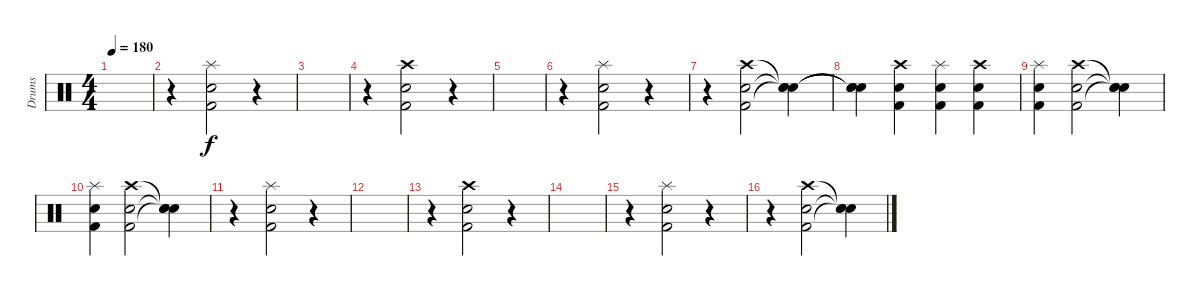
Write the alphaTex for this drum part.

\track ("Drums" "Drums") {instrument percussion}
\staff {score}
\articulation defaults
\ts (4 4)
\tempo 180
\clef neutral
\ks c
|
r.4 ("Snare (hit) 2" "Kick (hit) 2" "Splash (hit)").2 r.4 |
|
r.4 ("Snare (hit) 2" "Kick (hit) 2" "Crash high (hit)").2 r.4 |
|
r.4 ("Snare (hit) 2" "Kick (hit) 2" "Splash (hit)").2 r.4 |
r.4 ("Snare (hit) 2" "Kick (hit) 2" "Crash high (hit)").2 ("Snare (hit)"{t} "Snare (hit)"{t} "Snare (hit)"{t}).4 |
("Snare (hit)"{t} "Snare (hit)"{t} "Snare (hit)"{t}).4 ("Snare (hit) 2" "Kick (hit) 2" "Crash high (hit)").4 ("Snare (hit) 2" "Kick (hit) 2" "Splash (hit)").4 ("Snare (hit) 2" "Kick (hit) 2" "Crash high (hit)").4 |
("Snare (hit) 2" "Kick (hit) 2" "Splash (hit)").4 ("Snare (hit) 2" "Kick (hit) 2" "Crash high (hit)").2 ("Snare (hit)"{t} "Snare (hit)"{t} "Snare (hit)"{t}).4 |
("Snare (hit) 2" "Kick (hit) 2" "Splash (hit)").4 ("Snare (hit) 2" "Kick (hit) 2" "Crash high (hit)").2 ("Snare (hit)"{t} "Snare (hit)"{t} "Snare (hit)"{t}).4 |
r.4 ("Snare (hit) 2" "Kick (hit) 2" "Splash (hit)").2 r.4 |
|
r.4 ("Snare (hit) 2" "Kick (hit) 2" "Crash high (hit)").2 r.4 |
|
r.4 ("Snare (hit) 2" "Kick (hit) 2" "Splash (hit)").2 r.4 |
r.4 ("Snare (hit) 2" "Kick (hit) 2" "Crash high (hit)").2 ("Snare (hit)"{t} "Snare (hit)"{t} "Snare (hit)"{t}).4
